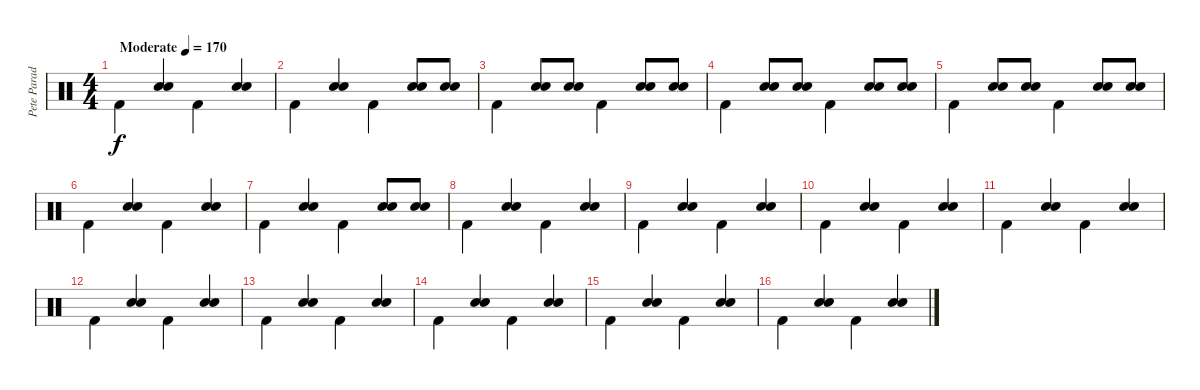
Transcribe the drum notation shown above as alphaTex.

\track ("Pete Parada" "Pete Parad") {instrument percussion}
\staff {score}
\articulation defaults
\ts (4 4)
\tempo (170 "Moderate")
\clef neutral
\ks c "Kick (hit) 2".4{dy f beam Down}
("Electric Snare (hit)" "Electric Snare (hit)").4{beam Up} "Kick (hit) 2".4{beam Down} ("Electric Snare (hit)" "Electric Snare (hit)").4{beam Up} |
"Kick (hit) 2".4{beam Down} ("Electric Snare (hit)" "Electric Snare (hit)").4{beam Up} "Kick (hit) 2".4{beam Down} ("Electric Snare (hit)" "Electric Snare (hit)").8{beam Up} ("Electric Snare (hit)" "Electric Snare (hit)").8{beam Up} |
"Kick (hit) 2".4{beam Down} ("Electric Snare (hit)" "Electric Snare (hit)").8{beam Up} ("Electric Snare (hit)" "Electric Snare (hit)").8{beam Up} "Kick (hit) 2".4{beam Down} ("Electric Snare (hit)" "Electric Snare (hit)").8{beam Up} ("Electric Snare (hit)" "Electric Snare (hit)").8{beam Up} |
"Kick (hit) 2".4{beam Down} ("Electric Snare (hit)" "Electric Snare (hit)").8{beam Up} ("Electric Snare (hit)" "Electric Snare (hit)").8{beam Up} "Kick (hit) 2".4{beam Down} ("Electric Snare (hit)" "Electric Snare (hit)").8{beam Up} ("Electric Snare (hit)" "Electric Snare (hit)").8{beam Up} |
"Kick (hit) 2".4{beam Down} ("Electric Snare (hit)" "Electric Snare (hit)").8{beam Up} ("Electric Snare (hit)" "Electric Snare (hit)").8{beam Up} "Kick (hit) 2".4{beam Down} ("Electric Snare (hit)" "Electric Snare (hit)").8{beam Up} ("Electric Snare (hit)" "Electric Snare (hit)").8{beam Up} |
"Kick (hit) 2".4{beam Down} ("Electric Snare (hit)" "Electric Snare (hit)").4{beam Up} "Kick (hit) 2".4{beam Down} ("Electric Snare (hit)" "Electric Snare (hit)").4{beam Up} |
"Kick (hit) 2".4{beam Down} ("Electric Snare (hit)" "Electric Snare (hit)").4{beam Up} "Kick (hit) 2".4{beam Down} ("Electric Snare (hit)" "Electric Snare (hit)").8{beam Up} ("Electric Snare (hit)" "Electric Snare (hit)").8{beam Up} |
"Kick (hit) 2".4{beam Down} ("Electric Snare (hit)" "Electric Snare (hit)").4{beam Up} "Kick (hit) 2".4{beam Down} ("Electric Snare (hit)" "Electric Snare (hit)").4{beam Up} |
"Kick (hit) 2".4{beam Down} ("Electric Snare (hit)" "Electric Snare (hit)").4{beam Up} "Kick (hit) 2".4{beam Down} ("Electric Snare (hit)" "Electric Snare (hit)").4{beam Up} |
"Kick (hit) 2".4{beam Down} ("Electric Snare (hit)" "Electric Snare (hit)").4{beam Up} "Kick (hit) 2".4{beam Down} ("Electric Snare (hit)" "Electric Snare (hit)").4{beam Up} |
"Kick (hit) 2".4{beam Down} ("Electric Snare (hit)" "Electric Snare (hit)").4{beam Up} "Kick (hit) 2".4{beam Down} ("Electric Snare (hit)" "Electric Snare (hit)").4{beam Up} |
"Kick (hit) 2".4{beam Down} ("Electric Snare (hit)" "Electric Snare (hit)").4{beam Up} "Kick (hit) 2".4{beam Down} ("Electric Snare (hit)" "Electric Snare (hit)").4{beam Up} |
"Kick (hit) 2".4{beam Down} ("Electric Snare (hit)" "Electric Snare (hit)").4{beam Up} "Kick (hit) 2".4{beam Down} ("Electric Snare (hit)" "Electric Snare (hit)").4{beam Up} |
"Kick (hit) 2".4{beam Down} ("Electric Snare (hit)" "Electric Snare (hit)").4{beam Up} "Kick (hit) 2".4{beam Down} ("Electric Snare (hit)" "Electric Snare (hit)").4{beam Up} |
"Kick (hit) 2".4{beam Down} ("Electric Snare (hit)" "Electric Snare (hit)").4{beam Up} "Kick (hit) 2".4{beam Down} ("Electric Snare (hit)" "Electric Snare (hit)").4{beam Up} |
"Kick (hit) 2".4{beam Down} ("Electric Snare (hit)" "Electric Snare (hit)").4{beam Up} "Kick (hit) 2".4{beam Down} ("Electric Snare (hit)" "Electric Snare (hit)").4{beam Up}
